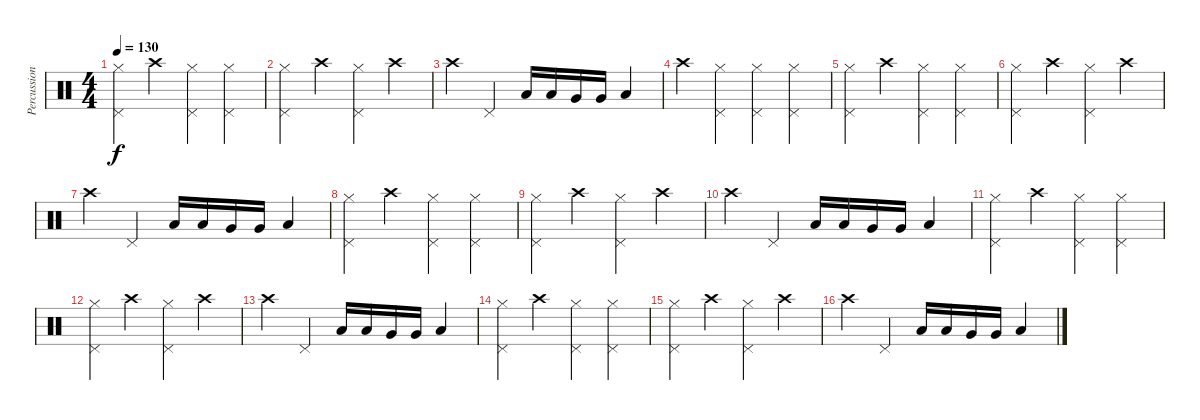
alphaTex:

\track ("Percussion" "Percussion") {instrument percussion}
\staff {score}
\articulation defaults
\ts (4 4)
\tempo 130
\clef neutral
\ks c
("Pedal Hi-Hat (hit)" "Hi-Hat (closed)").4{dy f} "Crash high (hit)".4 ("Pedal Hi-Hat (hit)" "Hi-Hat (closed)").4 ("Pedal Hi-Hat (hit)" "Hi-Hat (closed)").4 |
("Pedal Hi-Hat (hit)" "Hi-Hat (closed)").4 "Crash high (hit)".4 ("Pedal Hi-Hat (hit)" "Hi-Hat (closed)").4 "Crash high (hit)".4 |
"Crash high (hit)".4 "Pedal Hi-Hat (hit)".4 "Low Tom (hit)".16 "Low Tom (hit)".16 "Very Low Tom (hit)".16 "Very Low Tom (hit)".16 "Low Floor Tom (hit)".4 |
"Crash high (hit)".4 ("Pedal Hi-Hat (hit)" "Hi-Hat (closed)").4 ("Pedal Hi-Hat (hit)" "Hi-Hat (closed)").4 ("Pedal Hi-Hat (hit)" "Hi-Hat (closed)").4 |
("Pedal Hi-Hat (hit)" "Hi-Hat (closed)").4 "Crash high (hit)".4 ("Pedal Hi-Hat (hit)" "Hi-Hat (closed)").4 ("Pedal Hi-Hat (hit)" "Hi-Hat (closed)").4 |
("Pedal Hi-Hat (hit)" "Hi-Hat (closed)").4 "Crash high (hit)".4 ("Pedal Hi-Hat (hit)" "Hi-Hat (closed)").4 "Crash high (hit)".4 |
"Crash high (hit)".4 "Pedal Hi-Hat (hit)".4 "Low Tom (hit)".16 "Low Tom (hit)".16 "Very Low Tom (hit)".16 "Very Low Tom (hit)".16 "Low Floor Tom (hit)".4 |
("Pedal Hi-Hat (hit)" "Hi-Hat (closed)").4 "Crash high (hit)".4 ("Pedal Hi-Hat (hit)" "Hi-Hat (closed)").4 ("Pedal Hi-Hat (hit)" "Hi-Hat (closed)").4 |
("Pedal Hi-Hat (hit)" "Hi-Hat (closed)").4 "Crash high (hit)".4 ("Pedal Hi-Hat (hit)" "Hi-Hat (closed)").4 "Crash high (hit)".4 |
"Crash high (hit)".4 "Pedal Hi-Hat (hit)".4 "Low Tom (hit)".16 "Low Tom (hit)".16 "Very Low Tom (hit)".16 "Very Low Tom (hit)".16 "Low Floor Tom (hit)".4 |
("Pedal Hi-Hat (hit)" "Hi-Hat (closed)").4 "Crash high (hit)".4 ("Pedal Hi-Hat (hit)" "Hi-Hat (closed)").4 ("Pedal Hi-Hat (hit)" "Hi-Hat (closed)").4 |
("Pedal Hi-Hat (hit)" "Hi-Hat (closed)").4 "Crash high (hit)".4 ("Pedal Hi-Hat (hit)" "Hi-Hat (closed)").4 "Crash high (hit)".4 |
"Crash high (hit)".4 "Pedal Hi-Hat (hit)".4 "Low Tom (hit)".16 "Low Tom (hit)".16 "Very Low Tom (hit)".16 "Very Low Tom (hit)".16 "Low Floor Tom (hit)".4 |
("Pedal Hi-Hat (hit)" "Hi-Hat (closed)").4 "Crash high (hit)".4 ("Pedal Hi-Hat (hit)" "Hi-Hat (closed)").4 ("Pedal Hi-Hat (hit)" "Hi-Hat (closed)").4 |
("Pedal Hi-Hat (hit)" "Hi-Hat (closed)").4 "Crash high (hit)".4 ("Pedal Hi-Hat (hit)" "Hi-Hat (closed)").4 "Crash high (hit)".4 |
"Crash high (hit)".4 "Pedal Hi-Hat (hit)".4 "Low Tom (hit)".16 "Low Tom (hit)".16 "Very Low Tom (hit)".16 "Very Low Tom (hit)".16 "Low Floor Tom (hit)".4
